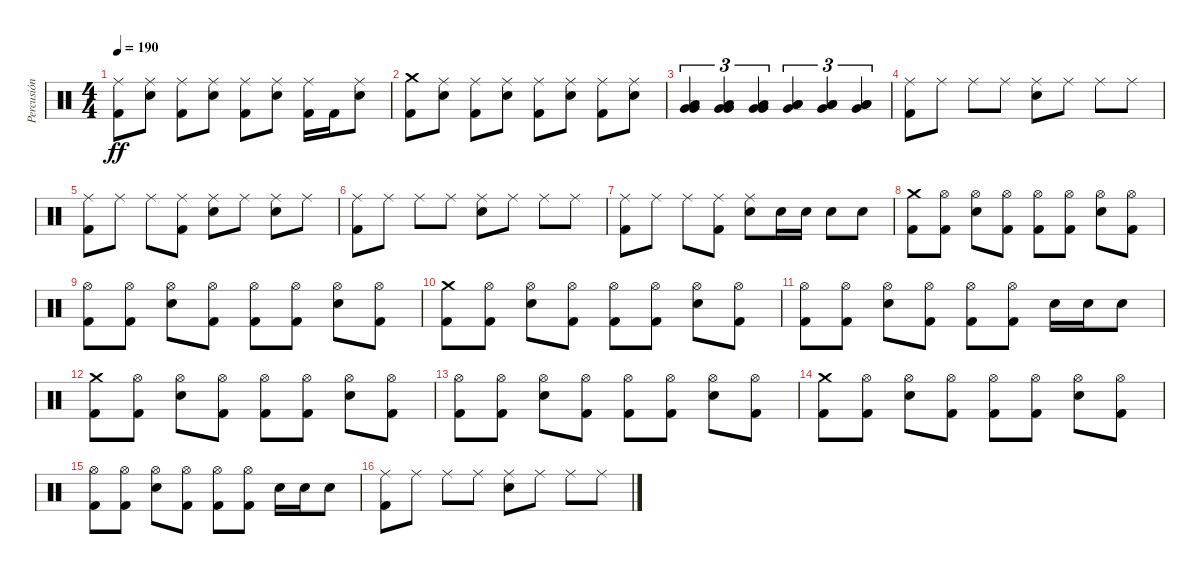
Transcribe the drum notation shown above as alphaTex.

\track ("Percusión" "Percusión") {instrument percussion}
\staff {score}
\articulation defaults
\ts (4 4)
\tempo 190
\clef neutral
\ks c
("Ride (middle)" "Kick (hit) 2").8{dy ff} ("Ride (middle)" "Snare (hit) 2").8 ("Ride (middle)" "Kick (hit) 2").8 ("Ride (middle)" "Snare (hit) 2").8 ("Ride (middle)" "Kick (hit) 2").8 ("Ride (middle)" "Snare (hit) 2").8 ("Ride (middle)" "Kick (hit) 2").16 "Kick (hit) 2".16 ("Ride (middle)" "Snare (hit) 2").8 |
("Crash medium (hit)" "Kick (hit) 2").8 ("Ride (middle)" "Snare (hit) 2").8 ("Ride (middle)" "Kick (hit) 2").8 ("Ride (middle)" "Snare (hit) 2").8 ("Ride (middle)" "Kick (hit) 2").8 ("Ride (middle)" "Snare (hit) 2").8 ("Ride (middle)" "Kick (hit) 2").8 ("Ride (middle)" "Snare (hit) 2").8 |
("Very Low Tom (hit)" "Low Tom (hit)" "Very Low Tom (hit)").4{tu (3 2)} ("Very Low Tom (hit)" "Low Tom (hit)" "Very Low Tom (hit)").4{tu (3 2)} ("Very Low Tom (hit)" "Low Tom (hit)" "Very Low Tom (hit)").4{tu (3 2)} ("Low Floor Tom (hit)" "Very Low Tom (hit)" "Low Floor Tom (hit)").4{tu (3 2)} ("Low Floor Tom (hit)" "Very Low Tom (hit)" "Low Floor Tom (hit)").4{tu (3 2)} ("Low Floor Tom (hit)" "Very Low Tom (hit)" "Low Floor Tom (hit)").4{tu (3 2)} |
("Ride (middle)" "Kick (hit) 2").8 "Ride (middle)".8 "Ride (middle)".8 "Ride (middle)".8 ("Ride (middle)" "Snare (hit) 2").8 "Ride (middle)".8 "Ride (middle)".8 "Ride (middle)".8 |
("Ride (middle)" "Kick (hit) 2").8 "Ride (middle)".8 "Ride (middle)".8 ("Ride (middle)" "Kick (hit) 2").8 ("Ride (middle)" "Snare (hit) 2").8 "Ride (middle)".8 ("Ride (middle)" "Snare (hit) 2").8 "Ride (middle)".8 |
("Ride (middle)" "Kick (hit) 2").8 "Ride (middle)".8 "Ride (middle)".8 "Ride (middle)".8 ("Ride (middle)" "Snare (hit) 2").8 "Ride (middle)".8 "Ride (middle)".8 "Ride (middle)".8 |
("Ride (middle)" "Kick (hit) 2").8 "Ride (middle)".8 "Ride (middle)".8 ("Ride (middle)" "Kick (hit) 2").8 ("Ride (middle)" "Snare (hit) 2").8 "Snare (hit) 2".16 "Snare (hit) 2".16 "Snare (hit) 2".8 "Snare (hit) 2".8 |
("Crash medium (hit)" "Kick (hit) 2").8 ("Hi-Hat (open)" "Kick (hit) 2").8 ("Hi-Hat (open)" "Snare (hit) 2").8 ("Hi-Hat (open)" "Kick (hit) 2").8 ("Hi-Hat (open)" "Kick (hit) 2").8 ("Hi-Hat (open)" "Kick (hit) 2").8 ("Hi-Hat (open)" "Snare (hit) 2").8 ("Hi-Hat (open)" "Kick (hit) 2").8 |
("Hi-Hat (open)" "Kick (hit) 2").8 ("Hi-Hat (open)" "Kick (hit) 2").8 ("Hi-Hat (open)" "Snare (hit) 2").8 ("Hi-Hat (open)" "Kick (hit) 2").8 ("Hi-Hat (open)" "Kick (hit) 2").8 ("Hi-Hat (open)" "Kick (hit) 2").8 ("Hi-Hat (open)" "Snare (hit) 2").8 ("Hi-Hat (open)" "Kick (hit) 2").8 |
("Crash medium (hit)" "Kick (hit) 2").8 ("Hi-Hat (open)" "Kick (hit) 2").8 ("Hi-Hat (open)" "Snare (hit) 2").8 ("Hi-Hat (open)" "Kick (hit) 2").8 ("Hi-Hat (open)" "Kick (hit) 2").8 ("Hi-Hat (open)" "Kick (hit) 2").8 ("Hi-Hat (open)" "Snare (hit) 2").8 ("Hi-Hat (open)" "Kick (hit) 2").8 |
("Hi-Hat (open)" "Kick (hit) 2").8 ("Hi-Hat (open)" "Kick (hit) 2").8 ("Hi-Hat (open)" "Snare (hit) 2").8 ("Hi-Hat (open)" "Kick (hit) 2").8 ("Hi-Hat (open)" "Kick (hit) 2").8 ("Hi-Hat (open)" "Kick (hit) 2").8 "Snare (hit) 2".16 "Snare (hit) 2".16 "Snare (hit) 2".8 |
("Crash medium (hit)" "Kick (hit) 2").8 ("Hi-Hat (open)" "Kick (hit) 2").8 ("Hi-Hat (open)" "Snare (hit) 2").8 ("Hi-Hat (open)" "Kick (hit) 2").8 ("Hi-Hat (open)" "Kick (hit) 2").8 ("Hi-Hat (open)" "Kick (hit) 2").8 ("Hi-Hat (open)" "Snare (hit) 2").8 ("Hi-Hat (open)" "Kick (hit) 2").8 |
("Hi-Hat (open)" "Kick (hit) 2").8 ("Hi-Hat (open)" "Kick (hit) 2").8 ("Hi-Hat (open)" "Snare (hit) 2").8 ("Hi-Hat (open)" "Kick (hit) 2").8 ("Hi-Hat (open)" "Kick (hit) 2").8 ("Hi-Hat (open)" "Kick (hit) 2").8 ("Hi-Hat (open)" "Snare (hit) 2").8 ("Hi-Hat (open)" "Kick (hit) 2").8 |
("Crash medium (hit)" "Kick (hit) 2").8 ("Hi-Hat (open)" "Kick (hit) 2").8 ("Hi-Hat (open)" "Snare (hit) 2").8 ("Hi-Hat (open)" "Kick (hit) 2").8 ("Hi-Hat (open)" "Kick (hit) 2").8 ("Hi-Hat (open)" "Kick (hit) 2").8 ("Hi-Hat (open)" "Snare (hit) 2").8 ("Hi-Hat (open)" "Kick (hit) 2").8 |
("Hi-Hat (open)" "Kick (hit) 2").8 ("Hi-Hat (open)" "Kick (hit) 2").8 ("Hi-Hat (open)" "Snare (hit) 2").8 ("Hi-Hat (open)" "Kick (hit) 2").8 ("Hi-Hat (open)" "Kick (hit) 2").8 ("Hi-Hat (open)" "Kick (hit) 2").8 "Snare (hit) 2".16 "Snare (hit) 2".16 "Snare (hit) 2".8 |
("Ride (middle)" "Kick (hit) 2").8 "Ride (middle)".8 "Ride (middle)".8 "Ride (middle)".8 ("Ride (middle)" "Snare (hit) 2").8 "Ride (middle)".8 "Ride (middle)".8 "Ride (middle)".8
